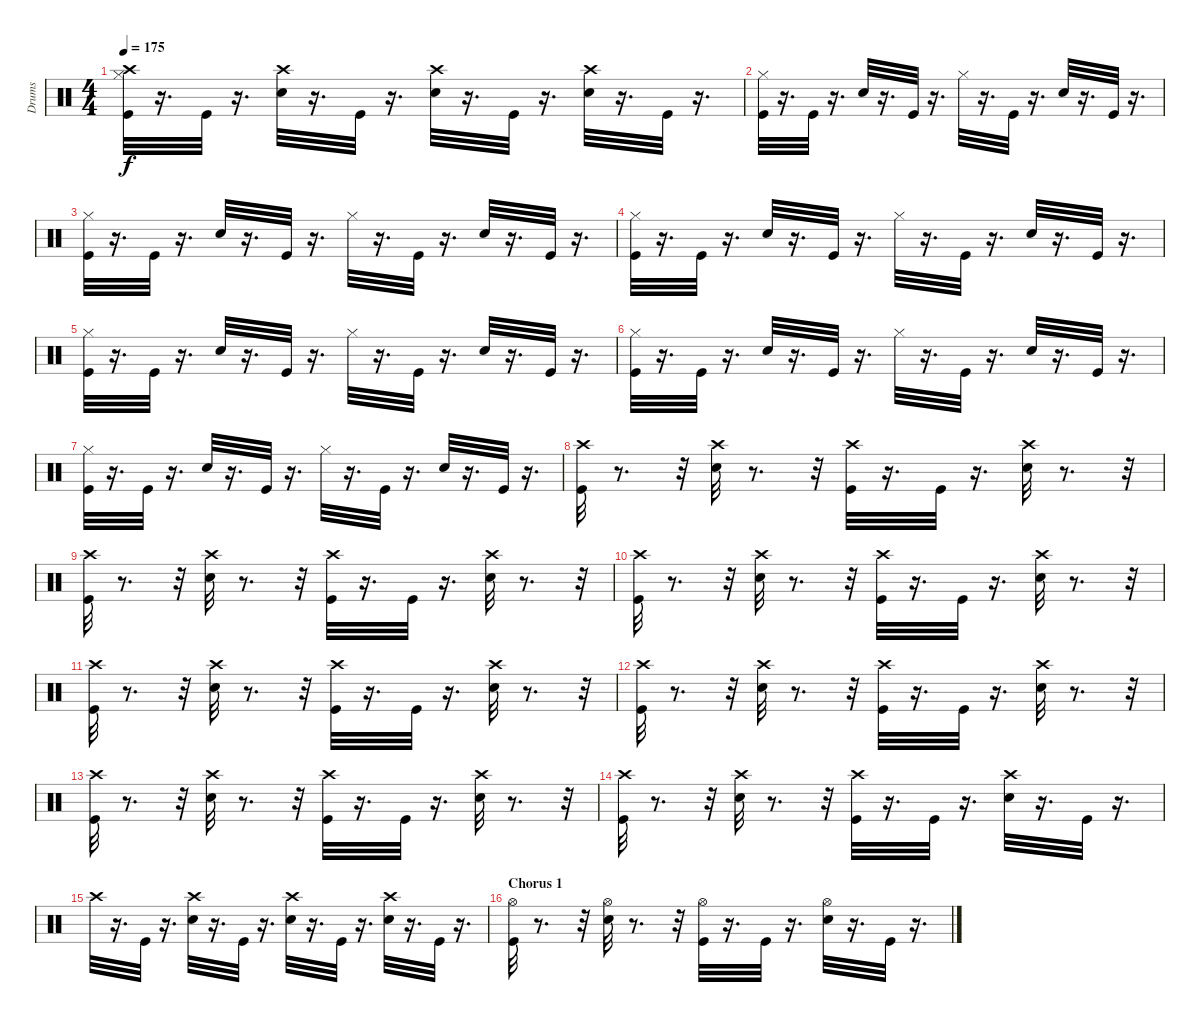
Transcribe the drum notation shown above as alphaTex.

\track ("Drums" "Drums") {instrument percussion}
\staff {score}
\articulation defaults
\ts (4 4)
\tempo 175
\clef neutral
\ks c
("Crash high (hit)" "Hi-Hat (closed)" "Kick (hit)").32{dy f} r.16{d} "Kick (hit)".32 r.16{d} ("Crash high (hit)" "Electric Snare (hit)").32 r.16{d} "Kick (hit)".32 r.16{d} ("Crash high (hit)" "Electric Snare (hit)").32 r.16{d} "Kick (hit)".32 r.16{d} ("Crash high (hit)" "Electric Snare (hit)").32 r.16{d} "Kick (hit)".32 r.16{d} |
("Hi-Hat (closed)" "Kick (hit)").32 r.16{d} "Kick (hit)".32 r.16{d} "Electric Snare (hit)".32 r.16{d} "Kick (hit)".32 r.16{d} "Hi-Hat (closed)".32 r.16{d} "Kick (hit)".32 r.16{d} "Electric Snare (hit)".32 r.16{d} "Kick (hit)".32 r.16{d} |
("Hi-Hat (closed)" "Kick (hit)").32 r.16{d} "Kick (hit)".32 r.16{d} "Electric Snare (hit)".32 r.16{d} "Kick (hit)".32 r.16{d} "Hi-Hat (closed)".32 r.16{d} "Kick (hit)".32 r.16{d} "Electric Snare (hit)".32 r.16{d} "Kick (hit)".32 r.16{d} |
("Hi-Hat (closed)" "Kick (hit)").32 r.16{d} "Kick (hit)".32 r.16{d} "Electric Snare (hit)".32 r.16{d} "Kick (hit)".32 r.16{d} "Hi-Hat (closed)".32 r.16{d} "Kick (hit)".32 r.16{d} "Electric Snare (hit)".32 r.16{d} "Kick (hit)".32 r.16{d} |
("Hi-Hat (closed)" "Kick (hit)").32 r.16{d} "Kick (hit)".32 r.16{d} "Electric Snare (hit)".32 r.16{d} "Kick (hit)".32 r.16{d} "Hi-Hat (closed)".32 r.16{d} "Kick (hit)".32 r.16{d} "Electric Snare (hit)".32 r.16{d} "Kick (hit)".32 r.16{d} |
("Hi-Hat (closed)" "Kick (hit)").32 r.16{d} "Kick (hit)".32 r.16{d} "Electric Snare (hit)".32 r.16{d} "Kick (hit)".32 r.16{d} "Hi-Hat (closed)".32 r.16{d} "Kick (hit)".32 r.16{d} "Electric Snare (hit)".32 r.16{d} "Kick (hit)".32 r.16{d} |
("Hi-Hat (closed)" "Kick (hit)").32 r.16{d} "Kick (hit)".32 r.16{d} "Electric Snare (hit)".32 r.16{d} "Kick (hit)".32 r.16{d} "Hi-Hat (closed)".32 r.16{d} "Kick (hit)".32 r.16{d} "Electric Snare (hit)".32 r.16{d} "Kick (hit)".32 r.16{d} |
("Crash high (hit)" "Kick (hit)").32 r.8{d} r.32 ("Crash high (hit)" "Electric Snare (hit)").32 r.8{d} r.32 ("Crash high (hit)" "Kick (hit)").32 r.16{d} "Kick (hit)".32 r.16{d} ("Crash high (hit)" "Electric Snare (hit)").32 r.8{d} r.32 |
("Crash high (hit)" "Kick (hit)").32 r.8{d} r.32 ("Crash high (hit)" "Electric Snare (hit)").32 r.8{d} r.32 ("Crash high (hit)" "Kick (hit)").32 r.16{d} "Kick (hit)".32 r.16{d} ("Crash high (hit)" "Electric Snare (hit)").32 r.8{d} r.32 |
("Crash high (hit)" "Kick (hit)").32 r.8{d} r.32 ("Crash high (hit)" "Electric Snare (hit)").32 r.8{d} r.32 ("Crash high (hit)" "Kick (hit)").32 r.16{d} "Kick (hit)".32 r.16{d} ("Crash high (hit)" "Electric Snare (hit)").32 r.8{d} r.32 |
("Crash high (hit)" "Kick (hit)").32 r.8{d} r.32 ("Crash high (hit)" "Electric Snare (hit)").32 r.8{d} r.32 ("Crash high (hit)" "Kick (hit)").32 r.16{d} "Kick (hit)".32 r.16{d} ("Crash high (hit)" "Electric Snare (hit)").32 r.8{d} r.32 |
("Crash high (hit)" "Kick (hit)").32 r.8{d} r.32 ("Crash high (hit)" "Electric Snare (hit)").32 r.8{d} r.32 ("Crash high (hit)" "Kick (hit)").32 r.16{d} "Kick (hit)".32 r.16{d} ("Crash high (hit)" "Electric Snare (hit)").32 r.8{d} r.32 |
("Crash high (hit)" "Kick (hit)").32 r.8{d} r.32 ("Crash high (hit)" "Electric Snare (hit)").32 r.8{d} r.32 ("Crash high (hit)" "Kick (hit)").32 r.16{d} "Kick (hit)".32 r.16{d} ("Crash high (hit)" "Electric Snare (hit)").32 r.8{d} r.32 |
("Crash high (hit)" "Kick (hit)").32 r.8{d} r.32 ("Electric Snare (hit)" "Crash high (hit)").32 r.8{d} r.32 ("Kick (hit)" "Crash high (hit)").32 r.16{d} "Kick (hit)".32 r.16{d} ("Electric Snare (hit)" "Crash high (hit)").32 r.16{d} "Kick (hit)".32 r.16{d} |
"Crash high (hit)".32 r.16{d} "Kick (hit)".32 r.16{d} ("Crash high (hit)" "Electric Snare (hit)").32 r.16{d} "Kick (hit)".32 r.16{d} ("Crash high (hit)" "Electric Snare (hit)").32 r.16{d} "Kick (hit)".32 r.16{d} ("Crash high (hit)" "Electric Snare (hit)").32 r.16{d} "Kick (hit)".32 r.16{d} |
\section ("" "Chorus 1")
("Hi-Hat (open)" "Kick (hit)").32 r.8{d} r.32 ("Hi-Hat (open)" "Electric Snare (hit)").32 r.8{d} r.32 ("Hi-Hat (open)" "Kick (hit)").32 r.16{d} "Kick (hit)".32 r.16{d} ("Hi-Hat (open)" "Electric Snare (hit)").32 r.16{d} "Kick (hit)".32 r.16{d}
